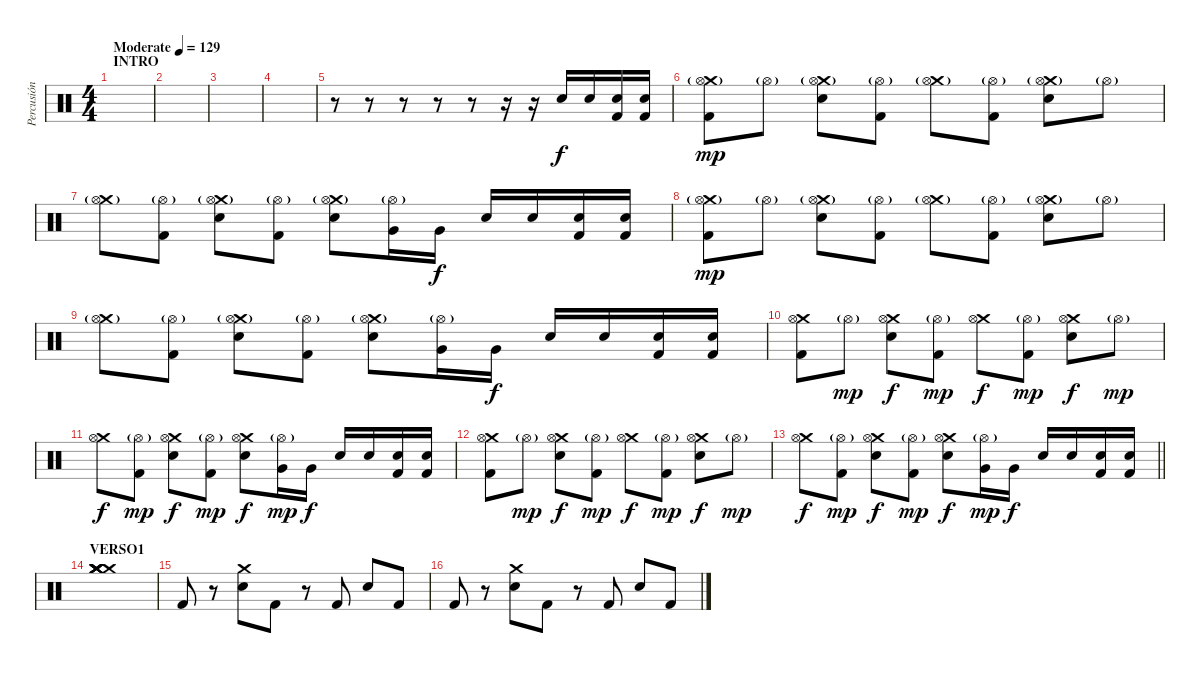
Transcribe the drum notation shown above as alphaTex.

\track ("Percusión" "Percusión") {instrument percussion}
\staff {score}
\articulation defaults
\ts (4 4)
\section ("" "INTRO")
\tempo (129 "Moderate")
\clef neutral
\ks c
|
|
|
|
r.8 r.8 r.8 r.8 r.8 r.16 r.16 "Snare (hit) 2".16 "Snare (hit) 2".16 ("Snare (hit) 2" "Kick (hit) 2").16 ("Snare (hit) 2" "Kick (hit) 2").16 |
("Crash medium (hit)"{g} "Hi-Hat (open)" "Kick (hit) 2").8{dy mp} "Hi-Hat (open)"{g}.8 ("Crash medium (hit)"{g} "Hi-Hat (open)" "Snare (hit) 2").8 ("Hi-Hat (open)"{g} "Kick (hit) 2").8 ("Crash medium (hit)"{g} "Hi-Hat (open)").8 ("Hi-Hat (open)"{g} "Kick (hit) 2").8 ("Crash medium (hit)"{g} "Hi-Hat (open)" "Snare (hit) 2").8 "Hi-Hat (open)"{g}.8 |
("Crash medium (hit)"{g} "Hi-Hat (open)").8 ("Hi-Hat (open)"{g} "Kick (hit) 2").8 ("Crash medium (hit)"{g} "Hi-Hat (open)" "Snare (hit) 2").8 ("Hi-Hat (open)"{g} "Kick (hit) 2").8 ("Crash medium (hit)"{g} "Hi-Hat (open)" "Snare (hit) 2").8 ("Hi-Hat (open)"{g} "Very Low Tom (hit)").16 "Very Low Tom (hit)".16{dy f} "Snare (hit) 2".16 "Snare (hit) 2".16 ("Snare (hit) 2" "Kick (hit) 2").16 ("Snare (hit) 2" "Kick (hit) 2").16 |
("Crash medium (hit)"{g} "Hi-Hat (open)" "Kick (hit) 2").8{dy mp} "Hi-Hat (open)"{g}.8 ("Crash medium (hit)"{g} "Hi-Hat (open)" "Snare (hit) 2").8 ("Hi-Hat (open)"{g} "Kick (hit) 2").8 ("Crash medium (hit)"{g} "Hi-Hat (open)").8 ("Hi-Hat (open)"{g} "Kick (hit) 2").8 ("Crash medium (hit)"{g} "Hi-Hat (open)" "Snare (hit) 2").8 "Hi-Hat (open)"{g}.8 |
("Crash medium (hit)"{g} "Hi-Hat (open)").8 ("Hi-Hat (open)"{g} "Kick (hit) 2").8 ("Crash medium (hit)"{g} "Hi-Hat (open)" "Snare (hit) 2").8 ("Hi-Hat (open)"{g} "Kick (hit) 2").8 ("Crash medium (hit)"{g} "Hi-Hat (open)" "Snare (hit) 2").8 ("Hi-Hat (open)"{g} "Very Low Tom (hit)").16 "Very Low Tom (hit)".16{dy f} "Snare (hit) 2".16 "Snare (hit) 2".16 ("Snare (hit) 2" "Kick (hit) 2").16 ("Snare (hit) 2" "Kick (hit) 2").16 |
("Crash medium (hit)" "Hi-Hat (open)" "Kick (hit) 2").8 "Hi-Hat (open)"{g}.8{dy mp} ("Crash medium (hit)" "Hi-Hat (open)" "Snare (hit) 2").8{dy f} ("Hi-Hat (open)"{g} "Kick (hit) 2").8{dy mp} ("Crash medium (hit)" "Hi-Hat (open)").8{dy f} ("Hi-Hat (open)"{g} "Kick (hit) 2").8{dy mp} ("Crash medium (hit)" "Hi-Hat (open)" "Snare (hit) 2").8{dy f} "Hi-Hat (open)"{g}.8{dy mp} |
("Crash medium (hit)" "Hi-Hat (open)").8{dy f} ("Hi-Hat (open)"{g} "Kick (hit) 2").8{dy mp} ("Crash medium (hit)" "Hi-Hat (open)" "Snare (hit) 2").8{dy f} ("Hi-Hat (open)"{g} "Kick (hit) 2").8{dy mp} ("Crash medium (hit)" "Hi-Hat (open)" "Snare (hit) 2").8{dy f} ("Hi-Hat (open)"{g} "Very Low Tom (hit)").16{dy mp} "Very Low Tom (hit)".16{dy f} "Snare (hit) 2".16 "Snare (hit) 2".16 ("Snare (hit) 2" "Kick (hit) 2").16 ("Snare (hit) 2" "Kick (hit) 2").16 |
("Crash medium (hit)" "Hi-Hat (open)" "Kick (hit) 2").8 "Hi-Hat (open)"{g}.8{dy mp} ("Crash medium (hit)" "Hi-Hat (open)" "Snare (hit) 2").8{dy f} ("Hi-Hat (open)"{g} "Kick (hit) 2").8{dy mp} ("Crash medium (hit)" "Hi-Hat (open)").8{dy f} ("Hi-Hat (open)"{g} "Kick (hit) 2").8{dy mp} ("Crash medium (hit)" "Hi-Hat (open)" "Snare (hit) 2").8{dy f} "Hi-Hat (open)"{g}.8{dy mp} |
\barLineRight lightlight
("Crash medium (hit)" "Hi-Hat (open)").8{dy f} ("Hi-Hat (open)"{g} "Kick (hit) 2").8{dy mp} ("Crash medium (hit)" "Hi-Hat (open)" "Snare (hit) 2").8{dy f} ("Hi-Hat (open)"{g} "Kick (hit) 2").8{dy mp} ("Crash medium (hit)" "Hi-Hat (open)" "Snare (hit) 2").8{dy f} ("Hi-Hat (open)"{g} "Very Low Tom (hit)").16{dy mp} "Very Low Tom (hit)".16{dy f} "Snare (hit) 2".16 "Snare (hit) 2".16 ("Snare (hit) 2" "Kick (hit) 2").16 ("Snare (hit) 2" "Kick (hit) 2").16 |
\section ("" "VERSO1")
("Crash medium (hit)" "Crash medium (hit)" "Crash medium (hit)" "Crash medium (hit)" "Crash medium (hit)" "Crash medium (hit)").1 |
"Kick (hit) 2".8 r.8 ("Crash medium (hit)" "Snare (hit) 2").8 "Kick (hit) 2".8 r.8 "Kick (hit) 2".8 "Snare (hit) 2".8 "Kick (hit) 2".8 |
"Kick (hit) 2".8 r.8 ("Crash medium (hit)" "Snare (hit) 2").8 "Kick (hit) 2".8 r.8 "Kick (hit) 2".8 "Snare (hit) 2".8 "Kick (hit) 2".8
